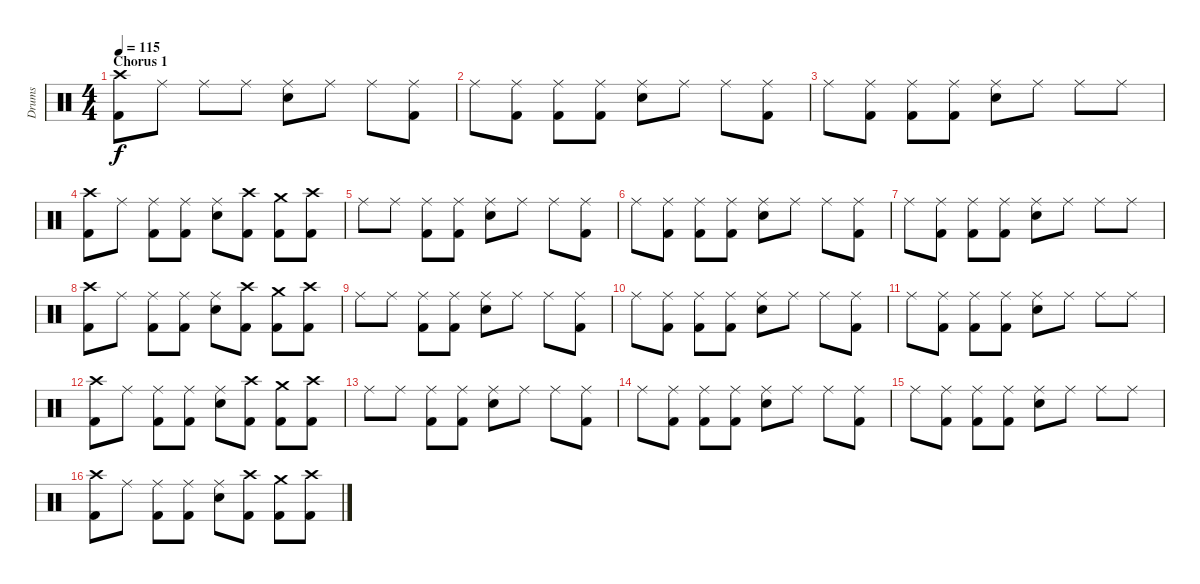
\track ("Drums" "Drums") {instrument percussion}
\staff {score}
\articulation defaults
\ts (4 4)
\section ("" "Chorus 1")
\tempo 115
\clef neutral
\ks c
("Crash high (hit)" "Kick (hit) 2").8{dy f} "Ride (middle)".8 "Ride (middle)".8 "Ride (middle)".8 ("Ride (middle)" "Snare (hit) 2").8 "Ride (middle)".8 "Ride (middle)".8 ("Ride (middle)" "Kick (hit) 2").8 |
"Ride (middle)".8 ("Ride (middle)" "Kick (hit) 2").8 ("Ride (middle)" "Kick (hit) 2").8 ("Ride (middle)" "Kick (hit) 2").8 ("Ride (middle)" "Snare (hit) 2").8 "Ride (middle)".8 "Ride (middle)".8 ("Ride (middle)" "Kick (hit) 2").8 |
"Ride (middle)".8 ("Ride (middle)" "Kick (hit) 2").8 ("Ride (middle)" "Kick (hit) 2").8 ("Ride (middle)" "Kick (hit) 2").8 ("Ride (middle)" "Snare (hit) 2").8 "Ride (middle)".8 "Ride (middle)".8 "Ride (middle)".8 |
("Crash high (hit)" "Kick (hit) 2").8 "Ride (middle)".8 ("Ride (middle)" "Kick (hit) 2").8 ("Ride (middle)" "Kick (hit) 2").8 ("Ride (middle)" "Snare (hit) 2").8 ("Crash high (hit)" "Kick (hit) 2").8 ("Crash medium (hit)" "Kick (hit) 2").8 ("Crash high (hit)" "Kick (hit) 2").8 |
"Ride (middle)".8 "Ride (middle)".8 ("Ride (middle)" "Kick (hit) 2").8 ("Ride (middle)" "Kick (hit) 2").8 ("Ride (middle)" "Snare (hit) 2").8 "Ride (middle)".8 "Ride (middle)".8 ("Ride (middle)" "Kick (hit) 2").8 |
"Ride (middle)".8 ("Ride (middle)" "Kick (hit) 2").8 ("Ride (middle)" "Kick (hit) 2").8 ("Ride (middle)" "Kick (hit) 2").8 ("Ride (middle)" "Snare (hit) 2").8 "Ride (middle)".8 "Ride (middle)".8 ("Ride (middle)" "Kick (hit) 2").8 |
"Ride (middle)".8 ("Ride (middle)" "Kick (hit) 2").8 ("Ride (middle)" "Kick (hit) 2").8 ("Ride (middle)" "Kick (hit) 2").8 ("Ride (middle)" "Snare (hit) 2").8 "Ride (middle)".8 "Ride (middle)".8 "Ride (middle)".8 |
("Crash high (hit)" "Kick (hit) 2").8 "Ride (middle)".8 ("Ride (middle)" "Kick (hit) 2").8 ("Ride (middle)" "Kick (hit) 2").8 ("Ride (middle)" "Snare (hit) 2").8 ("Crash high (hit)" "Kick (hit) 2").8 ("Crash medium (hit)" "Kick (hit) 2").8 ("Crash high (hit)" "Kick (hit) 2").8 |
"Ride (middle)".8 "Ride (middle)".8 ("Ride (middle)" "Kick (hit) 2").8 ("Ride (middle)" "Kick (hit) 2").8 ("Ride (middle)" "Snare (hit) 2").8 "Ride (middle)".8 "Ride (middle)".8 ("Ride (middle)" "Kick (hit) 2").8 |
"Ride (middle)".8 ("Ride (middle)" "Kick (hit) 2").8 ("Ride (middle)" "Kick (hit) 2").8 ("Ride (middle)" "Kick (hit) 2").8 ("Ride (middle)" "Snare (hit) 2").8 "Ride (middle)".8 "Ride (middle)".8 ("Ride (middle)" "Kick (hit) 2").8 |
"Ride (middle)".8 ("Ride (middle)" "Kick (hit) 2").8 ("Ride (middle)" "Kick (hit) 2").8 ("Ride (middle)" "Kick (hit) 2").8 ("Ride (middle)" "Snare (hit) 2").8 "Ride (middle)".8 "Ride (middle)".8 "Ride (middle)".8 |
("Crash high (hit)" "Kick (hit) 2").8 "Ride (middle)".8 ("Ride (middle)" "Kick (hit) 2").8 ("Ride (middle)" "Kick (hit) 2").8 ("Ride (middle)" "Snare (hit) 2").8 ("Crash high (hit)" "Kick (hit) 2").8 ("Crash medium (hit)" "Kick (hit) 2").8 ("Crash high (hit)" "Kick (hit) 2").8 |
"Ride (middle)".8 "Ride (middle)".8 ("Ride (middle)" "Kick (hit) 2").8 ("Ride (middle)" "Kick (hit) 2").8 ("Ride (middle)" "Snare (hit) 2").8 "Ride (middle)".8 "Ride (middle)".8 ("Ride (middle)" "Kick (hit) 2").8 |
"Ride (middle)".8 ("Ride (middle)" "Kick (hit) 2").8 ("Ride (middle)" "Kick (hit) 2").8 ("Ride (middle)" "Kick (hit) 2").8 ("Ride (middle)" "Snare (hit) 2").8 "Ride (middle)".8 "Ride (middle)".8 ("Ride (middle)" "Kick (hit) 2").8 |
"Ride (middle)".8 ("Ride (middle)" "Kick (hit) 2").8 ("Ride (middle)" "Kick (hit) 2").8 ("Ride (middle)" "Kick (hit) 2").8 ("Ride (middle)" "Snare (hit) 2").8 "Ride (middle)".8 "Ride (middle)".8 "Ride (middle)".8 |
("Crash high (hit)" "Kick (hit) 2").8 "Ride (middle)".8 ("Ride (middle)" "Kick (hit) 2").8 ("Ride (middle)" "Kick (hit) 2").8 ("Ride (middle)" "Snare (hit) 2").8 ("Crash high (hit)" "Kick (hit) 2").8 ("Crash medium (hit)" "Kick (hit) 2").8 ("Crash high (hit)" "Kick (hit) 2").8
